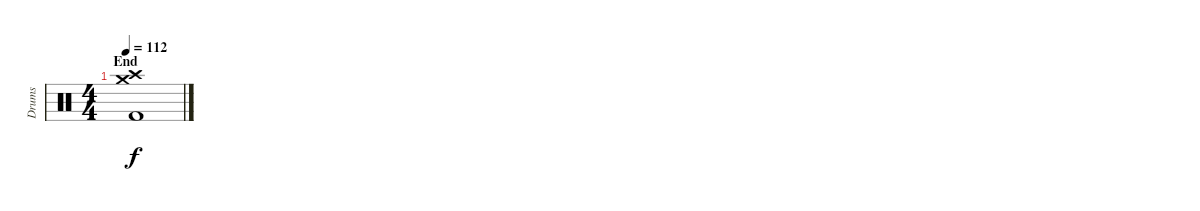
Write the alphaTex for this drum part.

\track ("Drums" "Drums") {instrument percussion}
\staff {score}
\articulation defaults
\ts (4 4)
\section ("" "End")
\tempo 112
\clef neutral
\ks c
("Crash high (hit)" "Crash medium (hit)" "Kick (hit) 2").1{dy f}
